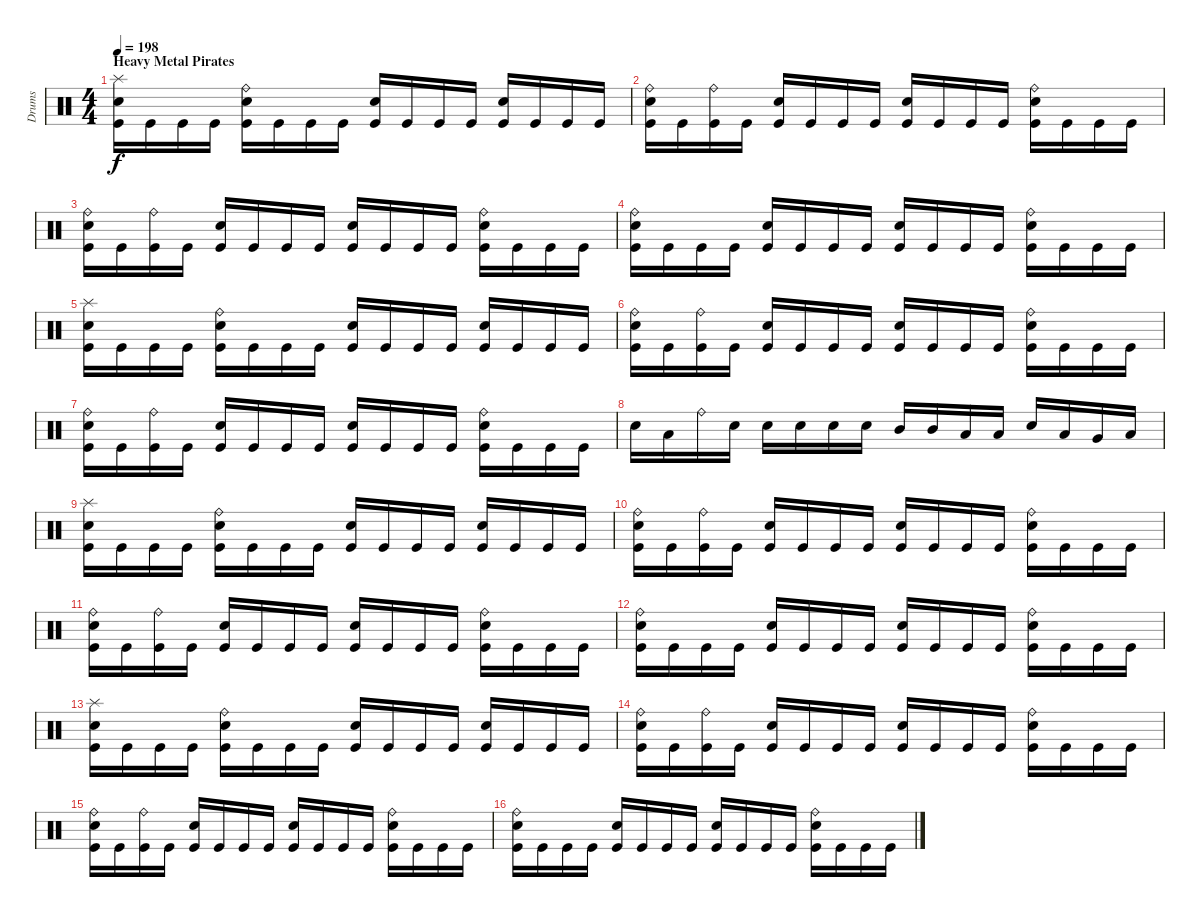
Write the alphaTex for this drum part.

\track ("Drums" "Drums") {instrument percussion}
\staff {score}
\articulation defaults
\ts (4 4)
\section ("" "Heavy Metal Pirates")
\tempo 198
\clef neutral
\ks c
("Splash (hit)" "Electric Snare (hit)" "Kick (hit)").16{dy f} "Kick (hit)".16 "Kick (hit)".16 "Kick (hit)".16 ("Ride (bell)" "Electric Snare (hit)" "Kick (hit)").16 "Kick (hit)".16 "Kick (hit)".16 "Kick (hit)".16 ("Electric Snare (hit)" "Kick (hit)").16 "Kick (hit)".16 "Kick (hit)".16 "Kick (hit)".16 ("Electric Snare (hit)" "Kick (hit)").16 "Kick (hit)".16 "Kick (hit)".16 "Kick (hit)".16 |
("Ride (bell)" "Electric Snare (hit)" "Kick (hit)").16 "Kick (hit)".16 ("Ride (bell)" "Kick (hit)").16 "Kick (hit)".16 ("Electric Snare (hit)" "Kick (hit)").16 "Kick (hit)".16 "Kick (hit)".16 "Kick (hit)".16 ("Electric Snare (hit)" "Kick (hit)").16 "Kick (hit)".16 "Kick (hit)".16 "Kick (hit)".16 ("Ride (bell)" "Electric Snare (hit)" "Kick (hit)").16 "Kick (hit)".16 "Kick (hit)".16 "Kick (hit)".16 |
("Ride (bell)" "Electric Snare (hit)" "Kick (hit)").16 "Kick (hit)".16 ("Ride (bell)" "Kick (hit)").16 "Kick (hit)".16 ("Electric Snare (hit)" "Kick (hit)").16 "Kick (hit)".16 "Kick (hit)".16 "Kick (hit)".16 ("Electric Snare (hit)" "Kick (hit)").16 "Kick (hit)".16 "Kick (hit)".16 "Kick (hit)".16 ("Ride (bell)" "Electric Snare (hit)" "Kick (hit)").16 "Kick (hit)".16 "Kick (hit)".16 "Kick (hit)".16 |
("Ride (bell)" "Electric Snare (hit)" "Kick (hit)").16 "Kick (hit)".16 "Kick (hit)".16 "Kick (hit)".16 ("Electric Snare (hit)" "Kick (hit)").16 "Kick (hit)".16 "Kick (hit)".16 "Kick (hit)".16 ("Electric Snare (hit)" "Kick (hit)").16 "Kick (hit)".16 "Kick (hit)".16 "Kick (hit)".16 ("Ride (bell)" "Electric Snare (hit)" "Kick (hit)").16 "Kick (hit)".16 "Kick (hit)".16 "Kick (hit)".16 |
("Splash (hit)" "Electric Snare (hit)" "Kick (hit)").16 "Kick (hit)".16 "Kick (hit)".16 "Kick (hit)".16 ("Ride (bell)" "Electric Snare (hit)" "Kick (hit)").16 "Kick (hit)".16 "Kick (hit)".16 "Kick (hit)".16 ("Electric Snare (hit)" "Kick (hit)").16 "Kick (hit)".16 "Kick (hit)".16 "Kick (hit)".16 ("Electric Snare (hit)" "Kick (hit)").16 "Kick (hit)".16 "Kick (hit)".16 "Kick (hit)".16 |
("Ride (bell)" "Electric Snare (hit)" "Kick (hit)").16 "Kick (hit)".16 ("Ride (bell)" "Kick (hit)").16 "Kick (hit)".16 ("Electric Snare (hit)" "Kick (hit)").16 "Kick (hit)".16 "Kick (hit)".16 "Kick (hit)".16 ("Electric Snare (hit)" "Kick (hit)").16 "Kick (hit)".16 "Kick (hit)".16 "Kick (hit)".16 ("Ride (bell)" "Electric Snare (hit)" "Kick (hit)").16 "Kick (hit)".16 "Kick (hit)".16 "Kick (hit)".16 |
("Ride (bell)" "Electric Snare (hit)" "Kick (hit)").16 "Kick (hit)".16 ("Ride (bell)" "Kick (hit)").16 "Kick (hit)".16 ("Electric Snare (hit)" "Kick (hit)").16 "Kick (hit)".16 "Kick (hit)".16 "Kick (hit)".16 ("Electric Snare (hit)" "Kick (hit)").16 "Kick (hit)".16 "Kick (hit)".16 "Kick (hit)".16 ("Ride (bell)" "Electric Snare (hit)" "Kick (hit)").16 "Kick (hit)".16 "Kick (hit)".16 "Kick (hit)".16 |
"Electric Snare (hit)".16 "Low Tom (hit)".16 "Ride (bell)".16 "Electric Snare (hit)".16 "Electric Snare (hit)".16 "Electric Snare (hit)".16 "Electric Snare (hit)".16 "Electric Snare (hit)".16 "Mid Tom (hit)".16 "Mid Tom (hit)".16 "Low Tom (hit)".16 "Low Tom (hit)".16 "Electric Snare (hit)".16 "Low Tom (hit)".16 "Very Low Tom (hit)".16 "Low Floor Tom (hit)".16 |
("Splash (hit)" "Electric Snare (hit)" "Kick (hit)").16 "Kick (hit)".16 "Kick (hit)".16 "Kick (hit)".16 ("Ride (bell)" "Electric Snare (hit)" "Kick (hit)").16 "Kick (hit)".16 "Kick (hit)".16 "Kick (hit)".16 ("Electric Snare (hit)" "Kick (hit)").16 "Kick (hit)".16 "Kick (hit)".16 "Kick (hit)".16 ("Electric Snare (hit)" "Kick (hit)").16 "Kick (hit)".16 "Kick (hit)".16 "Kick (hit)".16 |
("Ride (bell)" "Electric Snare (hit)" "Kick (hit)").16 "Kick (hit)".16 ("Ride (bell)" "Kick (hit)").16 "Kick (hit)".16 ("Electric Snare (hit)" "Kick (hit)").16 "Kick (hit)".16 "Kick (hit)".16 "Kick (hit)".16 ("Electric Snare (hit)" "Kick (hit)").16 "Kick (hit)".16 "Kick (hit)".16 "Kick (hit)".16 ("Ride (bell)" "Electric Snare (hit)" "Kick (hit)").16 "Kick (hit)".16 "Kick (hit)".16 "Kick (hit)".16 |
("Ride (bell)" "Electric Snare (hit)" "Kick (hit)").16 "Kick (hit)".16 ("Ride (bell)" "Kick (hit)").16 "Kick (hit)".16 ("Electric Snare (hit)" "Kick (hit)").16 "Kick (hit)".16 "Kick (hit)".16 "Kick (hit)".16 ("Electric Snare (hit)" "Kick (hit)").16 "Kick (hit)".16 "Kick (hit)".16 "Kick (hit)".16 ("Ride (bell)" "Electric Snare (hit)" "Kick (hit)").16 "Kick (hit)".16 "Kick (hit)".16 "Kick (hit)".16 |
("Ride (bell)" "Electric Snare (hit)" "Kick (hit)").16 "Kick (hit)".16 "Kick (hit)".16 "Kick (hit)".16 ("Electric Snare (hit)" "Kick (hit)").16 "Kick (hit)".16 "Kick (hit)".16 "Kick (hit)".16 ("Electric Snare (hit)" "Kick (hit)").16 "Kick (hit)".16 "Kick (hit)".16 "Kick (hit)".16 ("Ride (bell)" "Electric Snare (hit)" "Kick (hit)").16 "Kick (hit)".16 "Kick (hit)".16 "Kick (hit)".16 |
("Splash (hit)" "Electric Snare (hit)" "Kick (hit)").16 "Kick (hit)".16 "Kick (hit)".16 "Kick (hit)".16 ("Ride (bell)" "Electric Snare (hit)" "Kick (hit)").16 "Kick (hit)".16 "Kick (hit)".16 "Kick (hit)".16 ("Electric Snare (hit)" "Kick (hit)").16 "Kick (hit)".16 "Kick (hit)".16 "Kick (hit)".16 ("Electric Snare (hit)" "Kick (hit)").16 "Kick (hit)".16 "Kick (hit)".16 "Kick (hit)".16 |
("Ride (bell)" "Electric Snare (hit)" "Kick (hit)").16 "Kick (hit)".16 ("Ride (bell)" "Kick (hit)").16 "Kick (hit)".16 ("Electric Snare (hit)" "Kick (hit)").16 "Kick (hit)".16 "Kick (hit)".16 "Kick (hit)".16 ("Electric Snare (hit)" "Kick (hit)").16 "Kick (hit)".16 "Kick (hit)".16 "Kick (hit)".16 ("Ride (bell)" "Electric Snare (hit)" "Kick (hit)").16 "Kick (hit)".16 "Kick (hit)".16 "Kick (hit)".16 |
("Ride (bell)" "Electric Snare (hit)" "Kick (hit)").16 "Kick (hit)".16 ("Ride (bell)" "Kick (hit)").16 "Kick (hit)".16 ("Electric Snare (hit)" "Kick (hit)").16 "Kick (hit)".16 "Kick (hit)".16 "Kick (hit)".16 ("Electric Snare (hit)" "Kick (hit)").16 "Kick (hit)".16 "Kick (hit)".16 "Kick (hit)".16 ("Ride (bell)" "Electric Snare (hit)" "Kick (hit)").16 "Kick (hit)".16 "Kick (hit)".16 "Kick (hit)".16 |
("Ride (bell)" "Electric Snare (hit)" "Kick (hit)").16 "Kick (hit)".16 "Kick (hit)".16 "Kick (hit)".16 ("Electric Snare (hit)" "Kick (hit)").16 "Kick (hit)".16 "Kick (hit)".16 "Kick (hit)".16 ("Electric Snare (hit)" "Kick (hit)").16 "Kick (hit)".16 "Kick (hit)".16 "Kick (hit)".16 ("Ride (bell)" "Electric Snare (hit)" "Kick (hit)").16 "Kick (hit)".16 "Kick (hit)".16 "Kick (hit)".16
